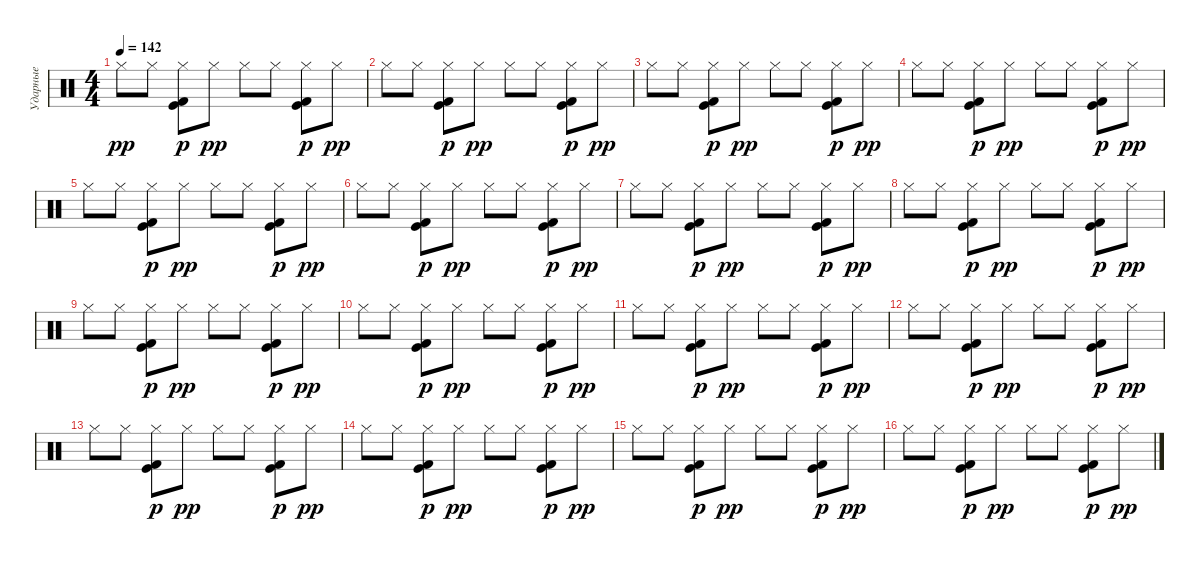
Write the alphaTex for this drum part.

\track ("Ударные" "Ударные") {instrument percussion}
\staff {score}
\articulation defaults
\ts (4 4)
\tempo 142
\clef neutral
\ks c "Hi-Hat (closed)".8{dy pp} "Hi-Hat (closed)".8
("Kick (hit)" "Hi-Hat (closed)" "Kick (hit) 2").8{dy p} "Hi-Hat (closed)".8{dy pp} "Hi-Hat (closed)".8 "Hi-Hat (closed)".8 ("Kick (hit)" "Hi-Hat (closed)" "Kick (hit) 2").8{dy p} "Hi-Hat (closed)".8{dy pp} |
"Hi-Hat (closed)".8 "Hi-Hat (closed)".8 ("Kick (hit)" "Hi-Hat (closed)" "Kick (hit) 2").8{dy p} "Hi-Hat (closed)".8{dy pp} "Hi-Hat (closed)".8 "Hi-Hat (closed)".8 ("Kick (hit)" "Hi-Hat (closed)" "Kick (hit) 2").8{dy p} "Hi-Hat (closed)".8{dy pp} |
"Hi-Hat (closed)".8 "Hi-Hat (closed)".8 ("Kick (hit)" "Hi-Hat (closed)" "Kick (hit) 2").8{dy p} "Hi-Hat (closed)".8{dy pp} "Hi-Hat (closed)".8 "Hi-Hat (closed)".8 ("Kick (hit)" "Hi-Hat (closed)" "Kick (hit) 2").8{dy p} "Hi-Hat (closed)".8{dy pp} |
"Hi-Hat (closed)".8 "Hi-Hat (closed)".8 ("Kick (hit)" "Hi-Hat (closed)" "Kick (hit) 2").8{dy p} "Hi-Hat (closed)".8{dy pp} "Hi-Hat (closed)".8 "Hi-Hat (closed)".8 ("Kick (hit)" "Hi-Hat (closed)" "Kick (hit) 2").8{dy p} "Hi-Hat (closed)".8{dy pp} |
"Hi-Hat (closed)".8 "Hi-Hat (closed)".8 ("Kick (hit)" "Hi-Hat (closed)" "Kick (hit) 2").8{dy p} "Hi-Hat (closed)".8{dy pp} "Hi-Hat (closed)".8 "Hi-Hat (closed)".8 ("Kick (hit)" "Hi-Hat (closed)" "Kick (hit) 2").8{dy p} "Hi-Hat (closed)".8{dy pp} |
"Hi-Hat (closed)".8 "Hi-Hat (closed)".8 ("Kick (hit)" "Hi-Hat (closed)" "Kick (hit) 2").8{dy p} "Hi-Hat (closed)".8{dy pp} "Hi-Hat (closed)".8 "Hi-Hat (closed)".8 ("Kick (hit)" "Hi-Hat (closed)" "Kick (hit) 2").8{dy p} "Hi-Hat (closed)".8{dy pp} |
"Hi-Hat (closed)".8 "Hi-Hat (closed)".8 ("Kick (hit)" "Hi-Hat (closed)" "Kick (hit) 2").8{dy p} "Hi-Hat (closed)".8{dy pp} "Hi-Hat (closed)".8 "Hi-Hat (closed)".8 ("Kick (hit)" "Hi-Hat (closed)" "Kick (hit) 2").8{dy p} "Hi-Hat (closed)".8{dy pp} |
"Hi-Hat (closed)".8 "Hi-Hat (closed)".8 ("Kick (hit)" "Hi-Hat (closed)" "Kick (hit) 2").8{dy p} "Hi-Hat (closed)".8{dy pp} "Hi-Hat (closed)".8 "Hi-Hat (closed)".8 ("Kick (hit)" "Hi-Hat (closed)" "Kick (hit) 2").8{dy p} "Hi-Hat (closed)".8{dy pp} |
"Hi-Hat (closed)".8 "Hi-Hat (closed)".8 ("Kick (hit)" "Hi-Hat (closed)" "Kick (hit) 2").8{dy p} "Hi-Hat (closed)".8{dy pp} "Hi-Hat (closed)".8 "Hi-Hat (closed)".8 ("Kick (hit)" "Hi-Hat (closed)" "Kick (hit) 2").8{dy p} "Hi-Hat (closed)".8{dy pp} |
"Hi-Hat (closed)".8 "Hi-Hat (closed)".8 ("Kick (hit)" "Hi-Hat (closed)" "Kick (hit) 2").8{dy p} "Hi-Hat (closed)".8{dy pp} "Hi-Hat (closed)".8 "Hi-Hat (closed)".8 ("Kick (hit)" "Hi-Hat (closed)" "Kick (hit) 2").8{dy p} "Hi-Hat (closed)".8{dy pp} |
"Hi-Hat (closed)".8 "Hi-Hat (closed)".8 ("Kick (hit)" "Hi-Hat (closed)" "Kick (hit) 2").8{dy p} "Hi-Hat (closed)".8{dy pp} "Hi-Hat (closed)".8 "Hi-Hat (closed)".8 ("Kick (hit)" "Hi-Hat (closed)" "Kick (hit) 2").8{dy p} "Hi-Hat (closed)".8{dy pp} |
"Hi-Hat (closed)".8 "Hi-Hat (closed)".8 ("Kick (hit)" "Hi-Hat (closed)" "Kick (hit) 2").8{dy p} "Hi-Hat (closed)".8{dy pp} "Hi-Hat (closed)".8 "Hi-Hat (closed)".8 ("Kick (hit)" "Hi-Hat (closed)" "Kick (hit) 2").8{dy p} "Hi-Hat (closed)".8{dy pp} |
"Hi-Hat (closed)".8 "Hi-Hat (closed)".8 ("Kick (hit)" "Hi-Hat (closed)" "Kick (hit) 2").8{dy p} "Hi-Hat (closed)".8{dy pp} "Hi-Hat (closed)".8 "Hi-Hat (closed)".8 ("Kick (hit)" "Hi-Hat (closed)" "Kick (hit) 2").8{dy p} "Hi-Hat (closed)".8{dy pp} |
"Hi-Hat (closed)".8 "Hi-Hat (closed)".8 ("Kick (hit)" "Hi-Hat (closed)" "Kick (hit) 2").8{dy p} "Hi-Hat (closed)".8{dy pp} "Hi-Hat (closed)".8 "Hi-Hat (closed)".8 ("Kick (hit)" "Hi-Hat (closed)" "Kick (hit) 2").8{dy p} "Hi-Hat (closed)".8{dy pp} |
"Hi-Hat (closed)".8 "Hi-Hat (closed)".8 ("Kick (hit)" "Hi-Hat (closed)" "Kick (hit) 2").8{dy p} "Hi-Hat (closed)".8{dy pp} "Hi-Hat (closed)".8 "Hi-Hat (closed)".8 ("Kick (hit)" "Hi-Hat (closed)" "Kick (hit) 2").8{dy p} "Hi-Hat (closed)".8{dy pp} |
"Hi-Hat (closed)".8 "Hi-Hat (closed)".8 ("Kick (hit)" "Hi-Hat (closed)" "Kick (hit) 2").8{dy p} "Hi-Hat (closed)".8{dy pp} "Hi-Hat (closed)".8 "Hi-Hat (closed)".8 ("Kick (hit)" "Hi-Hat (closed)" "Kick (hit) 2").8{dy p} "Hi-Hat (closed)".8{dy pp}
